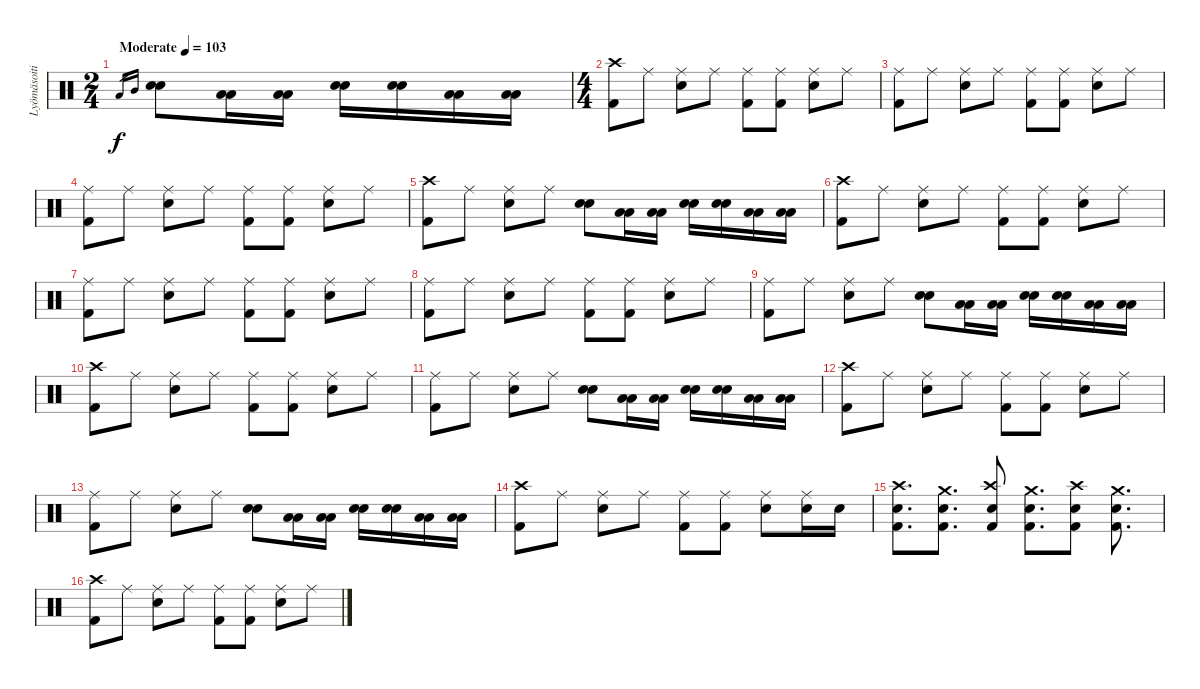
\track ("Lyömäsoitin" "Lyömäsoiti") {instrument percussion}
\staff {score}
\articulation defaults
\ts (2 4)
\tempo (103 "Moderate")
\clef neutral
\ks c "Low Tom (hit)".16{gr dy f} "Mid Tom (hit)".16{gr}
("Electric Snare (hit)" "Electric Snare (hit)").8 ("Low Tom (hit)" "Low Tom (hit)").16 ("Low Tom (hit)" "Low Tom (hit)").16 ("Electric Snare (hit)" "Electric Snare (hit)").16 ("Electric Snare (hit)" "Electric Snare (hit)").16 ("Low Tom (hit)" "Low Tom (hit)").16 ("Low Tom (hit)" "Low Tom (hit)").16 |
\ts (4 4)
("Crash high (hit)" "Kick (hit) 2").8 "Ride (middle)".8 ("Ride (middle)" "Electric Snare (hit)").8 "Ride (middle)".8 ("Ride (middle)" "Kick (hit) 2").8 ("Ride (middle)" "Kick (hit) 2").8 ("Ride (middle)" "Electric Snare (hit)").8 "Ride (middle)".8 |
("Ride (middle)" "Kick (hit) 2").8 "Ride (middle)".8 ("Ride (middle)" "Electric Snare (hit)").8 "Ride (middle)".8 ("Ride (middle)" "Kick (hit) 2").8 ("Ride (middle)" "Kick (hit) 2").8 ("Ride (middle)" "Electric Snare (hit)").8 "Ride (middle)".8 |
("Ride (middle)" "Kick (hit) 2").8 "Ride (middle)".8 ("Ride (middle)" "Electric Snare (hit)").8 "Ride (middle)".8 ("Ride (middle)" "Kick (hit) 2").8 ("Ride (middle)" "Kick (hit) 2").8 ("Ride (middle)" "Electric Snare (hit)").8 "Ride (middle)".8 |
("Crash high (hit)" "Kick (hit) 2").8 "Ride (middle)".8 ("Ride (middle)" "Electric Snare (hit)").8 "Ride (middle)".8 ("Electric Snare (hit)" "Electric Snare (hit)").8 ("Low Tom (hit)" "Low Tom (hit)").16 ("Low Tom (hit)" "Low Tom (hit)").16 ("Electric Snare (hit)" "Electric Snare (hit)").16 ("Electric Snare (hit)" "Electric Snare (hit)").16 ("Low Tom (hit)" "Low Tom (hit)").16 ("Low Tom (hit)" "Low Tom (hit)").16 |
("Crash high (hit)" "Kick (hit) 2").8 "Ride (middle)".8 ("Ride (middle)" "Electric Snare (hit)").8 "Ride (middle)".8 ("Ride (middle)" "Kick (hit) 2").8 ("Ride (middle)" "Kick (hit) 2").8 ("Ride (middle)" "Electric Snare (hit)").8 "Ride (middle)".8 |
("Ride (middle)" "Kick (hit) 2").8 "Ride (middle)".8 ("Ride (middle)" "Electric Snare (hit)").8 "Ride (middle)".8 ("Ride (middle)" "Kick (hit) 2").8 ("Ride (middle)" "Kick (hit) 2").8 ("Ride (middle)" "Electric Snare (hit)").8 "Ride (middle)".8 |
("Ride (middle)" "Kick (hit) 2").8 "Ride (middle)".8 ("Ride (middle)" "Electric Snare (hit)").8 "Ride (middle)".8 ("Ride (middle)" "Kick (hit) 2").8 ("Ride (middle)" "Kick (hit) 2").8 ("Ride (middle)" "Electric Snare (hit)").8 "Ride (middle)".8 |
("Ride (middle)" "Kick (hit) 2").8 "Ride (middle)".8 ("Ride (middle)" "Electric Snare (hit)").8 "Ride (middle)".8 ("Electric Snare (hit)" "Electric Snare (hit)").8 ("Low Tom (hit)" "Low Tom (hit)").16 ("Low Tom (hit)" "Low Tom (hit)").16 ("Electric Snare (hit)" "Electric Snare (hit)").16 ("Electric Snare (hit)" "Electric Snare (hit)").16 ("Low Tom (hit)" "Low Tom (hit)").16 ("Low Tom (hit)" "Low Tom (hit)").16 |
("Crash high (hit)" "Kick (hit) 2").8 "Ride (middle)".8 ("Ride (middle)" "Electric Snare (hit)").8 "Ride (middle)".8 ("Ride (middle)" "Kick (hit) 2").8 ("Ride (middle)" "Kick (hit) 2").8 ("Ride (middle)" "Electric Snare (hit)").8 "Ride (middle)".8 |
("Ride (middle)" "Kick (hit) 2").8 "Ride (middle)".8 ("Ride (middle)" "Electric Snare (hit)").8 "Ride (middle)".8 ("Electric Snare (hit)" "Electric Snare (hit)").8 ("Low Tom (hit)" "Low Tom (hit)").16 ("Low Tom (hit)" "Low Tom (hit)").16 ("Electric Snare (hit)" "Electric Snare (hit)").16 ("Electric Snare (hit)" "Electric Snare (hit)").16 ("Low Tom (hit)" "Low Tom (hit)").16 ("Low Tom (hit)" "Low Tom (hit)").16 |
("Crash high (hit)" "Kick (hit) 2").8 "Ride (middle)".8 ("Ride (middle)" "Electric Snare (hit)").8 "Ride (middle)".8 ("Ride (middle)" "Kick (hit) 2").8 ("Ride (middle)" "Kick (hit) 2").8 ("Ride (middle)" "Electric Snare (hit)").8 "Ride (middle)".8 |
("Ride (middle)" "Kick (hit) 2").8 "Ride (middle)".8 ("Ride (middle)" "Electric Snare (hit)").8 "Ride (middle)".8 ("Electric Snare (hit)" "Electric Snare (hit)").8 ("Low Tom (hit)" "Low Tom (hit)").16 ("Low Tom (hit)" "Low Tom (hit)").16 ("Electric Snare (hit)" "Electric Snare (hit)").16 ("Electric Snare (hit)" "Electric Snare (hit)").16 ("Low Tom (hit)" "Low Tom (hit)").16 ("Low Tom (hit)" "Low Tom (hit)").16 |
("Crash high (hit)" "Kick (hit) 2").8 "Ride (middle)".8 ("Ride (middle)" "Electric Snare (hit)").8 "Ride (middle)".8 ("Ride (middle)" "Kick (hit) 2").8 ("Ride (middle)" "Kick (hit) 2").8 ("Ride (middle)" "Electric Snare (hit)").8 ("Ride (middle)" "Electric Snare (hit)").16 "Electric Snare (hit)".16 |
("Crash high (hit)" "Electric Snare (hit)" "Kick (hit) 2").8{d} ("Crash medium (hit)" "Electric Snare (hit)" "Kick (hit) 2").8{d} ("Crash high (hit)" "Electric Snare (hit)" "Kick (hit) 2").8 ("Crash medium (hit)" "Electric Snare (hit)" "Kick (hit) 2").8{d} ("Crash high (hit)" "Electric Snare (hit)" "Kick (hit) 2").8 ("Crash medium (hit)" "Electric Snare (hit)" "Kick (hit) 2").8{d} |
("Crash high (hit)" "Kick (hit) 2").8 "Ride (middle)".8 ("Ride (middle)" "Electric Snare (hit)").8 "Ride (middle)".8 ("Ride (middle)" "Kick (hit) 2").8 ("Ride (middle)" "Kick (hit) 2").8 ("Ride (middle)" "Electric Snare (hit)").8 "Ride (middle)".8
